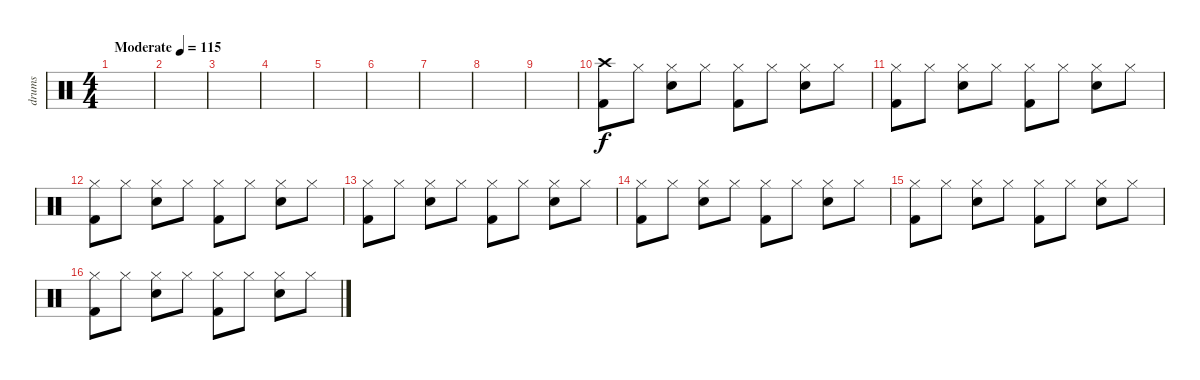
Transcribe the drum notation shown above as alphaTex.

\track ("drums" "drums") {instrument percussion}
\staff {score}
\articulation defaults
\ts (4 4)
\tempo (115 "Moderate")
\clef neutral
\ks c
|
|
|
|
|
|
|
|
|
("Crash high (hit)" "Kick (hit) 2").8 "Hi-Hat (closed)".8 ("Hi-Hat (closed)" "Electric Snare (hit)").8 "Hi-Hat (closed)".8 ("Hi-Hat (closed)" "Kick (hit) 2").8 "Hi-Hat (closed)".8 ("Hi-Hat (closed)" "Electric Snare (hit)").8 "Hi-Hat (closed)".8 |
("Hi-Hat (closed)" "Kick (hit) 2").8 "Hi-Hat (closed)".8 ("Hi-Hat (closed)" "Electric Snare (hit)").8 "Hi-Hat (closed)".8 ("Hi-Hat (closed)" "Kick (hit) 2").8 "Hi-Hat (closed)".8 ("Hi-Hat (closed)" "Electric Snare (hit)").8 "Hi-Hat (closed)".8 |
("Hi-Hat (closed)" "Kick (hit) 2").8 "Hi-Hat (closed)".8 ("Hi-Hat (closed)" "Electric Snare (hit)").8 "Hi-Hat (closed)".8 ("Hi-Hat (closed)" "Kick (hit) 2").8 "Hi-Hat (closed)".8 ("Hi-Hat (closed)" "Electric Snare (hit)").8 "Hi-Hat (closed)".8 |
("Hi-Hat (closed)" "Kick (hit) 2").8 "Hi-Hat (closed)".8 ("Hi-Hat (closed)" "Electric Snare (hit)").8 "Hi-Hat (closed)".8 ("Hi-Hat (closed)" "Kick (hit) 2").8 "Hi-Hat (closed)".8 ("Hi-Hat (closed)" "Electric Snare (hit)").8 "Hi-Hat (closed)".8 |
("Hi-Hat (closed)" "Kick (hit) 2").8 "Hi-Hat (closed)".8 ("Hi-Hat (closed)" "Electric Snare (hit)").8 "Hi-Hat (closed)".8 ("Hi-Hat (closed)" "Kick (hit) 2").8 "Hi-Hat (closed)".8 ("Hi-Hat (closed)" "Electric Snare (hit)").8 "Hi-Hat (closed)".8 |
("Hi-Hat (closed)" "Kick (hit) 2").8 "Hi-Hat (closed)".8 ("Hi-Hat (closed)" "Electric Snare (hit)").8 "Hi-Hat (closed)".8 ("Hi-Hat (closed)" "Kick (hit) 2").8 "Hi-Hat (closed)".8 ("Hi-Hat (closed)" "Electric Snare (hit)").8 "Hi-Hat (closed)".8 |
("Hi-Hat (closed)" "Kick (hit) 2").8 "Hi-Hat (closed)".8 ("Hi-Hat (closed)" "Electric Snare (hit)").8 "Hi-Hat (closed)".8 ("Hi-Hat (closed)" "Kick (hit) 2").8 "Hi-Hat (closed)".8 ("Hi-Hat (closed)" "Electric Snare (hit)").8 "Hi-Hat (closed)".8
